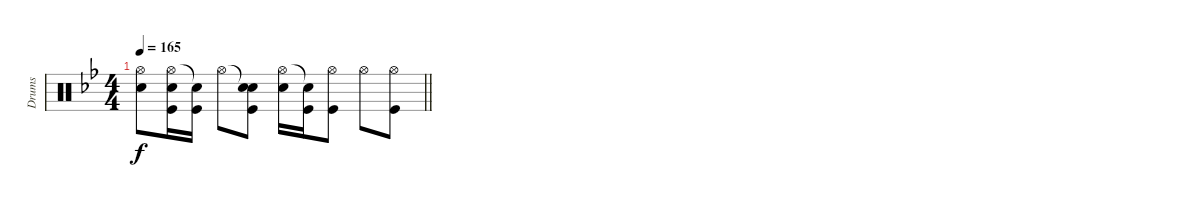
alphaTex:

\track ("Drums" "Drums") {instrument percussion}
\staff {score}
\articulation defaults
\ts (4 4)
\tempo 165
\clef neutral
\barLineRight lightlight
\ks bb
("Hi-Hat (open)" "Snare (hit) 2").8{dy f} ("Hi-Hat (open)" "Snare (hit) 2" "Kick (hit)").16 ("Snare (hit)"{t} "Kick (hit)").16 "Hi-Hat (open)".8 ("Snare (hit)"{t} "Snare (hit) 2" "Kick (hit)").8 ("Hi-Hat (open)" "Snare (hit) 2").16 ("Snare (hit)"{t} "Kick (hit)").16 ("Hi-Hat (open)" "Kick (hit)").8 "Hi-Hat (open)".8 ("Hi-Hat (open)" "Kick (hit)").8
